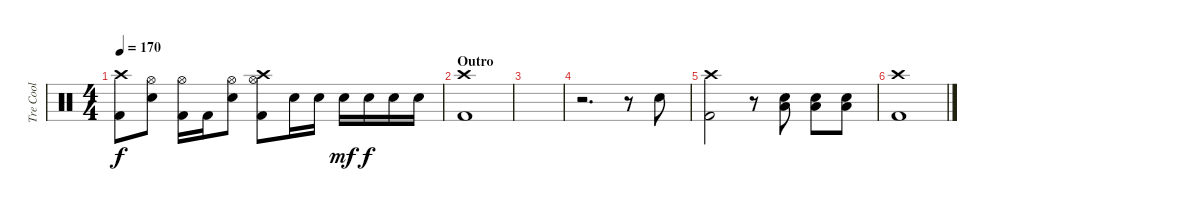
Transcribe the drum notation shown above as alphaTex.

\track ("Tre Cool" "Tre Cool") {instrument percussion}
\staff {score}
\articulation defaults
\ts (4 4)
\tempo 170
\clef neutral
\ks c
("Crash high (hit)" "Kick (hit) 2").8{dy f} ("Hi-Hat (open)" "Electric Snare (hit)").8 ("Hi-Hat (open)" "Kick (hit) 2").16 "Kick (hit) 2".16 ("Hi-Hat (open)" "Electric Snare (hit)").8 ("Crash high (hit)" "Hi-Hat (open)" "Kick (hit) 2").8 "Electric Snare (hit)".16 "Electric Snare (hit)".16 "Electric Snare (hit)".16{dy mf} "Electric Snare (hit)".16{dy f} "Electric Snare (hit)".16 "Electric Snare (hit)".16 |
\section ("" "Outro")
("Crash high (hit)" "Kick (hit) 2").1 |
|
r.2{d} r.8 "Electric Snare (hit)".8 |
("Crash high (hit)" "Kick (hit) 2").2 r.8 ("Electric Snare (hit)" "Low Floor Tom (hit)").8 ("Electric Snare (hit)" "Low Floor Tom (hit)").8 ("Electric Snare (hit)" "Low Floor Tom (hit)").8 |
("Crash high (hit)" "Kick (hit) 2").1
